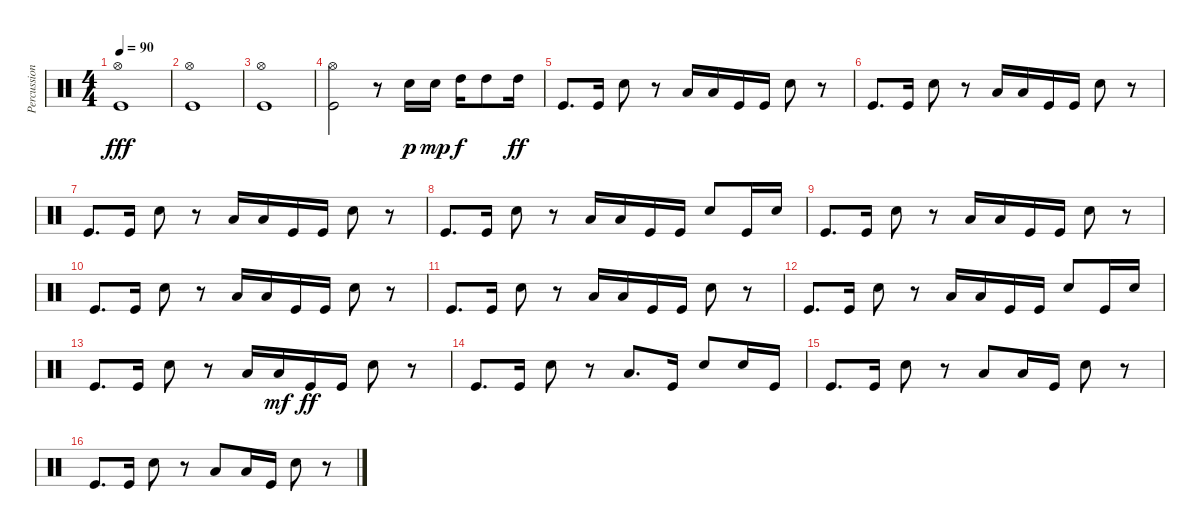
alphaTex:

\track ("Percussion" "Percussion") {instrument percussion}
\staff {score}
\articulation defaults
\ts (4 4)
\tempo 90
\clef neutral
\ks c
("Hi-Hat (open)" "Kick (hit)").1{dy fff} |
("Hi-Hat (open)" "Kick (hit)").1 |
("Hi-Hat (open)" "Kick (hit)").1 |
("Kick (hit)" "Hi-Hat (open)").2 r.8 "Snare (hit) 2".16{dy p} "Snare (hit) 2".16{dy mp} "High Tom (hit)".16{dy f} "High Tom (hit)".8 "High Tom (hit)".16{dy ff} |
"Kick (hit)".8{d} "Kick (hit)".16 "Snare (hit) 2".8 r.8 "Low Floor Tom (hit)".16 "Low Floor Tom (hit)".16 "Kick (hit)".16 "Kick (hit)".16 "Snare (hit) 2".8 r.8 |
"Kick (hit)".8{d} "Kick (hit)".16 "Snare (hit) 2".8 r.8 "Low Floor Tom (hit)".16 "Low Floor Tom (hit)".16 "Kick (hit)".16 "Kick (hit)".16 "Snare (hit) 2".8 r.8 |
"Kick (hit)".8{d} "Kick (hit)".16 "Snare (hit) 2".8 r.8 "Low Floor Tom (hit)".16 "Low Floor Tom (hit)".16 "Kick (hit)".16 "Kick (hit)".16 "Snare (hit) 2".8 r.8 |
"Kick (hit)".8{d} "Kick (hit)".16 "Snare (hit) 2".8 r.8 "Low Floor Tom (hit)".16 "Low Floor Tom (hit)".16 "Kick (hit)".16 "Kick (hit)".16 "Snare (hit) 2".8 "Kick (hit)".16 "Snare (hit) 2".16 |
"Kick (hit)".8{d} "Kick (hit)".16 "Snare (hit) 2".8 r.8 "Low Floor Tom (hit)".16 "Low Floor Tom (hit)".16 "Kick (hit)".16 "Kick (hit)".16 "Snare (hit) 2".8 r.8 |
"Kick (hit)".8{d} "Kick (hit)".16 "Snare (hit) 2".8 r.8 "Low Floor Tom (hit)".16 "Low Floor Tom (hit)".16 "Kick (hit)".16 "Kick (hit)".16 "Snare (hit) 2".8 r.8 |
"Kick (hit)".8{d} "Kick (hit)".16 "Snare (hit) 2".8 r.8 "Low Floor Tom (hit)".16 "Low Floor Tom (hit)".16 "Kick (hit)".16 "Kick (hit)".16 "Snare (hit) 2".8 r.8 |
"Kick (hit)".8{d} "Kick (hit)".16 "Snare (hit) 2".8 r.8 "Low Floor Tom (hit)".16 "Low Floor Tom (hit)".16 "Kick (hit)".16 "Kick (hit)".16 "Snare (hit) 2".8 "Kick (hit)".16 "Snare (hit) 2".16 |
"Kick (hit)".8{d} "Kick (hit)".16 "Snare (hit) 2".8 r.8 "Low Floor Tom (hit)".16 "Low Floor Tom (hit)".16{dy mf} "Kick (hit)".16{dy ff} "Kick (hit)".16 "Snare (hit) 2".8 r.8 |
"Kick (hit)".8{d} "Kick (hit)".16 "Snare (hit) 2".8 r.8 "Low Floor Tom (hit)".8{d} "Kick (hit)".16 "Snare (hit) 2".8 "Snare (hit) 2".16 "Kick (hit)".16 |
"Kick (hit)".8{d} "Kick (hit)".16 "Snare (hit) 2".8 r.8 "Low Floor Tom (hit)".8 "Low Floor Tom (hit)".16 "Kick (hit)".16 "Snare (hit) 2".8 r.8 |
"Kick (hit)".8{d} "Kick (hit)".16 "Snare (hit) 2".8 r.8 "Low Floor Tom (hit)".8 "Low Floor Tom (hit)".16 "Kick (hit)".16 "Snare (hit) 2".8 r.8
